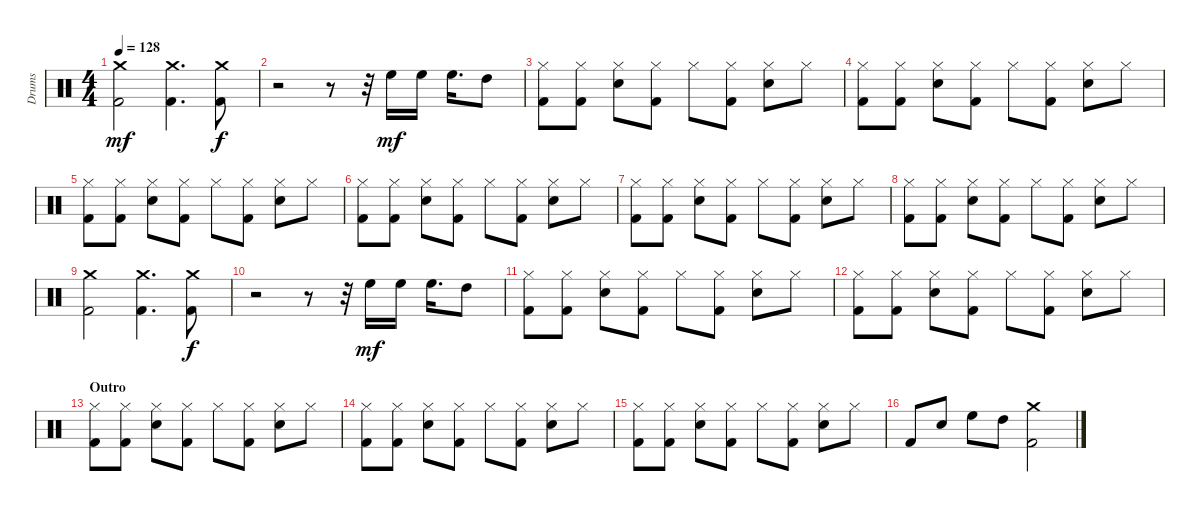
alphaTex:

\track ("Drums" "Drums") {instrument percussion}
\staff {score}
\articulation defaults
\ts (4 4)
\tempo 128
\clef neutral
\ks c
("Crash medium (hit)" "Kick (hit) 2").2{dy mf} ("Crash medium (hit)" "Kick (hit) 2").4{d} ("Crash medium (hit)" "Kick (hit) 2").8{dy f} |
r.2 r.8 r.32 "High Floor Tom (hit)".16{dy mf} "High Floor Tom (hit)".16 "High Floor Tom (hit)".16{d} "High Tom (hit)".8 |
("Hi-Hat (closed)" "Kick (hit) 2").8 ("Hi-Hat (closed)" "Kick (hit) 2").8 ("Hi-Hat (closed)" "Snare (hit) 2").8 ("Hi-Hat (closed)" "Kick (hit) 2").8 "Hi-Hat (closed)".8 ("Hi-Hat (closed)" "Kick (hit) 2").8 ("Hi-Hat (closed)" "Snare (hit) 2").8 "Hi-Hat (closed)".8 |
("Hi-Hat (closed)" "Kick (hit) 2").8 ("Hi-Hat (closed)" "Kick (hit) 2").8 ("Hi-Hat (closed)" "Snare (hit) 2").8 ("Hi-Hat (closed)" "Kick (hit) 2").8 "Hi-Hat (closed)".8 ("Hi-Hat (closed)" "Kick (hit) 2").8 ("Hi-Hat (closed)" "Snare (hit) 2").8 "Hi-Hat (closed)".8 |
("Hi-Hat (closed)" "Kick (hit) 2").8 ("Hi-Hat (closed)" "Kick (hit) 2").8 ("Hi-Hat (closed)" "Snare (hit) 2").8 ("Hi-Hat (closed)" "Kick (hit) 2").8 "Hi-Hat (closed)".8 ("Hi-Hat (closed)" "Kick (hit) 2").8 ("Hi-Hat (closed)" "Snare (hit) 2").8 "Hi-Hat (closed)".8 |
("Hi-Hat (closed)" "Kick (hit) 2").8 ("Hi-Hat (closed)" "Kick (hit) 2").8 ("Hi-Hat (closed)" "Snare (hit) 2").8 ("Hi-Hat (closed)" "Kick (hit) 2").8 "Hi-Hat (closed)".8 ("Hi-Hat (closed)" "Kick (hit) 2").8 ("Hi-Hat (closed)" "Snare (hit) 2").8 "Hi-Hat (closed)".8 |
("Hi-Hat (closed)" "Kick (hit) 2").8 ("Hi-Hat (closed)" "Kick (hit) 2").8 ("Hi-Hat (closed)" "Snare (hit) 2").8 ("Hi-Hat (closed)" "Kick (hit) 2").8 "Hi-Hat (closed)".8 ("Hi-Hat (closed)" "Kick (hit) 2").8 ("Hi-Hat (closed)" "Snare (hit) 2").8 "Hi-Hat (closed)".8 |
("Hi-Hat (closed)" "Kick (hit) 2").8 ("Hi-Hat (closed)" "Kick (hit) 2").8 ("Hi-Hat (closed)" "Snare (hit) 2").8 ("Hi-Hat (closed)" "Kick (hit) 2").8 "Hi-Hat (closed)".8 ("Hi-Hat (closed)" "Kick (hit) 2").8 ("Hi-Hat (closed)" "Snare (hit) 2").8 "Hi-Hat (closed)".8 |
("Crash medium (hit)" "Kick (hit) 2").2 ("Crash medium (hit)" "Kick (hit) 2").4{d} ("Crash medium (hit)" "Kick (hit) 2").8{dy f} |
r.2 r.8 r.32 "High Floor Tom (hit)".16{dy mf} "High Floor Tom (hit)".16 "High Floor Tom (hit)".16{d} "High Tom (hit)".8 |
("Hi-Hat (closed)" "Kick (hit) 2").8 ("Hi-Hat (closed)" "Kick (hit) 2").8 ("Hi-Hat (closed)" "Snare (hit) 2").8 ("Hi-Hat (closed)" "Kick (hit) 2").8 "Hi-Hat (closed)".8 ("Hi-Hat (closed)" "Kick (hit) 2").8 ("Hi-Hat (closed)" "Snare (hit) 2").8 "Hi-Hat (closed)".8 |
("Hi-Hat (closed)" "Kick (hit) 2").8 ("Hi-Hat (closed)" "Kick (hit) 2").8 ("Hi-Hat (closed)" "Snare (hit) 2").8 ("Hi-Hat (closed)" "Kick (hit) 2").8 "Hi-Hat (closed)".8 ("Hi-Hat (closed)" "Kick (hit) 2").8 ("Hi-Hat (closed)" "Snare (hit) 2").8 "Hi-Hat (closed)".8 |
\section ("" "Outro")
("Hi-Hat (closed)" "Kick (hit) 2").8 ("Hi-Hat (closed)" "Kick (hit) 2").8 ("Hi-Hat (closed)" "Snare (hit) 2").8 ("Hi-Hat (closed)" "Kick (hit) 2").8 "Hi-Hat (closed)".8 ("Hi-Hat (closed)" "Kick (hit) 2").8 ("Hi-Hat (closed)" "Snare (hit) 2").8 "Hi-Hat (closed)".8 |
("Hi-Hat (closed)" "Kick (hit) 2").8 ("Hi-Hat (closed)" "Kick (hit) 2").8 ("Hi-Hat (closed)" "Snare (hit) 2").8 ("Hi-Hat (closed)" "Kick (hit) 2").8 "Hi-Hat (closed)".8 ("Hi-Hat (closed)" "Kick (hit) 2").8 ("Hi-Hat (closed)" "Snare (hit) 2").8 "Hi-Hat (closed)".8 |
("Hi-Hat (closed)" "Kick (hit) 2").8 ("Hi-Hat (closed)" "Kick (hit) 2").8 ("Hi-Hat (closed)" "Snare (hit) 2").8 ("Hi-Hat (closed)" "Kick (hit) 2").8 "Hi-Hat (closed)".8 ("Hi-Hat (closed)" "Kick (hit) 2").8 ("Hi-Hat (closed)" "Snare (hit) 2").8 "Hi-Hat (closed)".8 |
"Kick (hit) 2".8 "Snare (hit) 2".8 "High Floor Tom (hit)".8 "High Tom (hit)".8 ("Crash medium (hit)" "Kick (hit) 2").2
